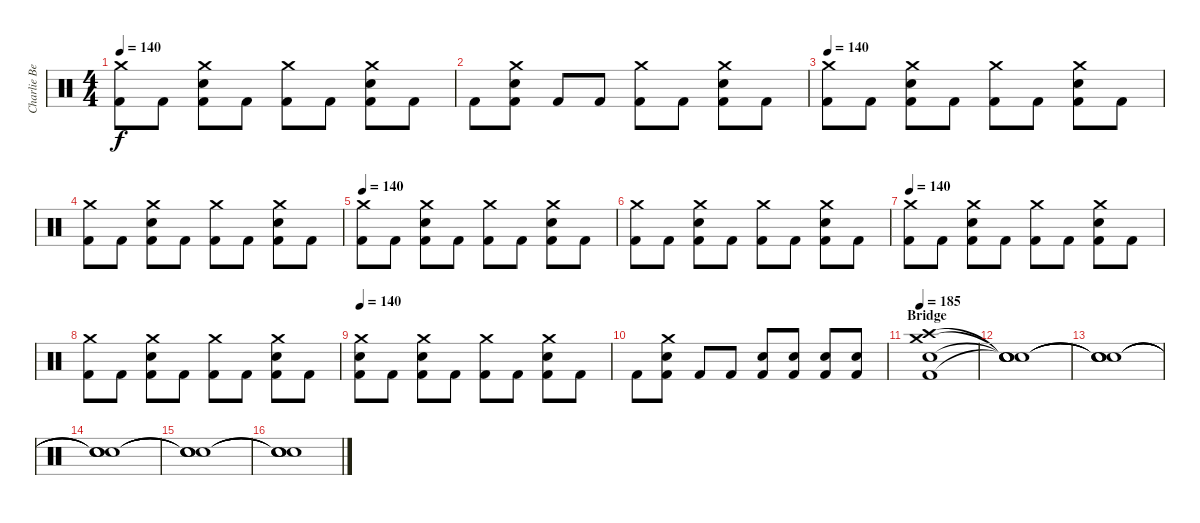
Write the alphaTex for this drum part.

\track ("Charlie Benante" "Charlie Be") {instrument percussion}
\staff {score}
\articulation defaults
\ts (4 4)
\tempo 140
\clef neutral
\ks c
("Crash medium (hit)" "Kick (hit) 2").8{dy f} "Kick (hit) 2".8 ("Crash medium (hit)" "Snare (hit) 2" "Kick (hit) 2").8 "Kick (hit) 2".8 ("Crash medium (hit)" "Kick (hit) 2").8 "Kick (hit) 2".8 ("Crash medium (hit)" "Snare (hit) 2" "Kick (hit) 2").8 "Kick (hit) 2".8 |
"Kick (hit) 2".8 ("Crash medium (hit)" "Snare (hit) 2" "Kick (hit) 2").8 "Kick (hit) 2".8 "Kick (hit) 2".8 ("Crash medium (hit)" "Kick (hit) 2").8 "Kick (hit) 2".8 ("Crash medium (hit)" "Snare (hit) 2" "Kick (hit) 2").8 "Kick (hit) 2".8 |
\tempo 140
("Crash medium (hit)" "Kick (hit) 2").8 "Kick (hit) 2".8 ("Crash medium (hit)" "Snare (hit) 2" "Kick (hit) 2").8 "Kick (hit) 2".8 ("Crash medium (hit)" "Kick (hit) 2").8 "Kick (hit) 2".8 ("Crash medium (hit)" "Snare (hit) 2" "Kick (hit) 2").8 "Kick (hit) 2".8 |
("Crash medium (hit)" "Kick (hit) 2").8 "Kick (hit) 2".8 ("Crash medium (hit)" "Snare (hit) 2" "Kick (hit) 2").8 "Kick (hit) 2".8 ("Crash medium (hit)" "Kick (hit) 2").8 "Kick (hit) 2".8 ("Crash medium (hit)" "Snare (hit) 2" "Kick (hit) 2").8 "Kick (hit) 2".8 |
\tempo 140
("Crash medium (hit)" "Kick (hit) 2").8 "Kick (hit) 2".8 ("Crash medium (hit)" "Snare (hit) 2" "Kick (hit) 2").8 "Kick (hit) 2".8 ("Crash medium (hit)" "Kick (hit) 2").8 "Kick (hit) 2".8 ("Crash medium (hit)" "Snare (hit) 2" "Kick (hit) 2").8 "Kick (hit) 2".8 |
("Crash medium (hit)" "Kick (hit) 2").8 "Kick (hit) 2".8 ("Crash medium (hit)" "Snare (hit) 2" "Kick (hit) 2").8 "Kick (hit) 2".8 ("Crash medium (hit)" "Kick (hit) 2").8 "Kick (hit) 2".8 ("Crash medium (hit)" "Snare (hit) 2" "Kick (hit) 2").8 "Kick (hit) 2".8 |
\tempo 140
("Crash medium (hit)" "Kick (hit) 2").8 "Kick (hit) 2".8 ("Crash medium (hit)" "Snare (hit) 2" "Kick (hit) 2").8 "Kick (hit) 2".8 ("Crash medium (hit)" "Kick (hit) 2").8 "Kick (hit) 2".8 ("Crash medium (hit)" "Snare (hit) 2" "Kick (hit) 2").8 "Kick (hit) 2".8 |
("Crash medium (hit)" "Kick (hit) 2").8 "Kick (hit) 2".8 ("Crash medium (hit)" "Snare (hit) 2" "Kick (hit) 2").8 "Kick (hit) 2".8 ("Crash medium (hit)" "Kick (hit) 2").8 "Kick (hit) 2".8 ("Crash medium (hit)" "Snare (hit) 2" "Kick (hit) 2").8 "Kick (hit) 2".8 |
\tempo 140
("Crash medium (hit)" "Snare (hit) 2" "Kick (hit) 2").8 "Kick (hit) 2".8 ("Crash medium (hit)" "Snare (hit) 2" "Kick (hit) 2").8 "Kick (hit) 2".8 ("Crash medium (hit)" "Kick (hit) 2").8 "Kick (hit) 2".8 ("Crash medium (hit)" "Snare (hit) 2" "Kick (hit) 2").8 "Kick (hit) 2".8 |
"Kick (hit) 2".8 ("Crash medium (hit)" "Snare (hit) 2" "Kick (hit) 2").8 "Kick (hit) 2".8 "Kick (hit) 2".8 ("Snare (hit) 2" "Kick (hit) 2").8 ("Snare (hit) 2" "Kick (hit) 2").8 ("Snare (hit) 2" "Kick (hit) 2").8 ("Snare (hit) 2" "Kick (hit) 2").8 |
\section ("" "Bridge")
\tempo 185
("Crash high (hit)" "Crash medium (hit)" "Snare (hit) 2" "Kick (hit) 2").1 |
("Snare (hit)"{t} "Snare (hit)"{t} "Snare (hit)"{t} "Snare (hit)"{t}).1 |
("Snare (hit)"{t} "Snare (hit)"{t} "Snare (hit)"{t} "Snare (hit)"{t}).1 |
("Snare (hit)"{t} "Snare (hit)"{t} "Snare (hit)"{t} "Snare (hit)"{t}).1 |
("Snare (hit)"{t} "Snare (hit)"{t} "Snare (hit)"{t} "Snare (hit)"{t}).1 |
("Snare (hit)"{t} "Snare (hit)"{t} "Snare (hit)"{t} "Snare (hit)"{t}).1
